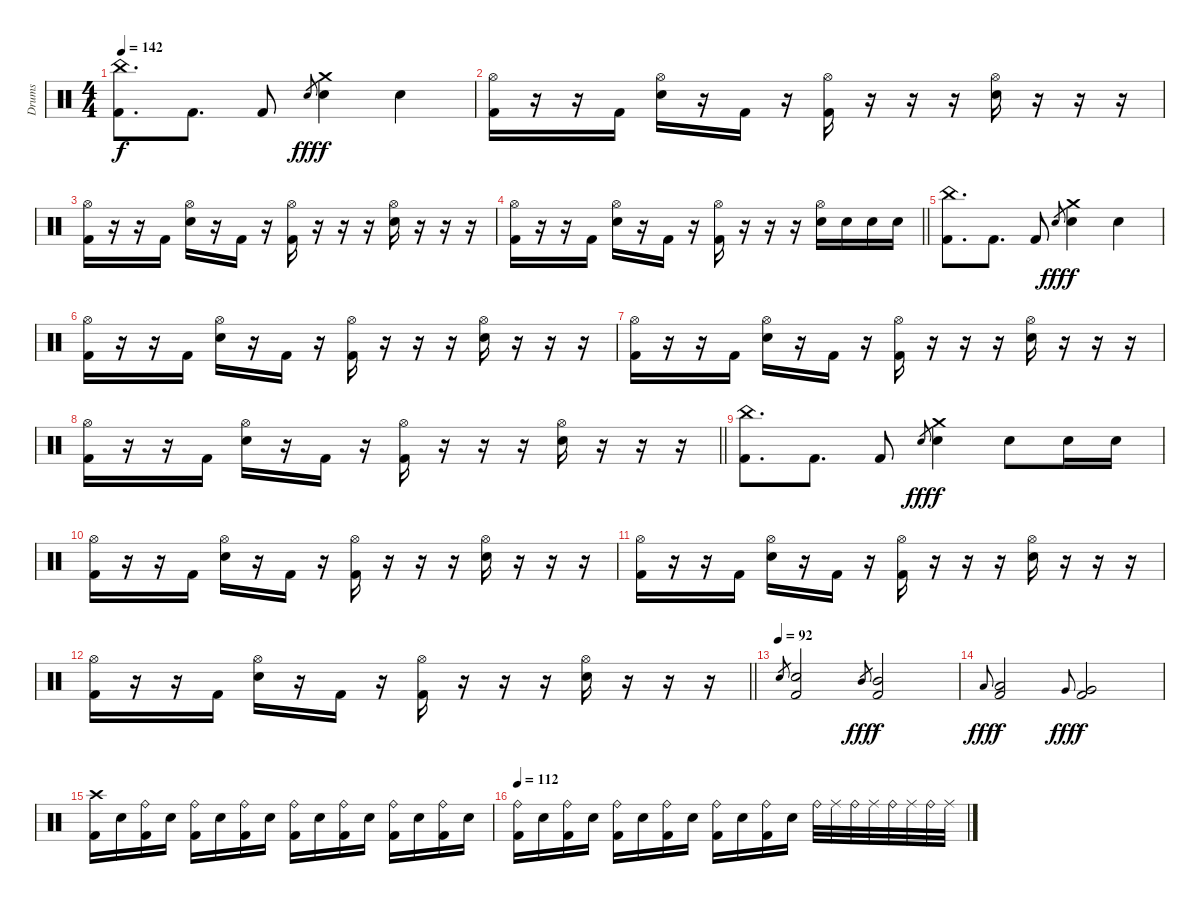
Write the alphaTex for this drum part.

\track ("Drums" "Drums") {instrument percussion}
\staff
\articulation defaults
\ts (4 4)
\tempo 142
\clef neutral
\ks c
("China (hit)" "Kick (hit) 2").8{d dy f} "Kick (hit) 2".8{d} "Kick (hit) 2".8 "Snare (hit) 2"{h}.8{gr dy fff} ("Crash medium (hit)" "Snare (hit) 2").4{dy f} "Snare (hit) 2".4 |
("Hi-Hat (open)" "Kick (hit) 2").16 r.16 r.16 "Kick (hit) 2".16 ("Hi-Hat (open)" "Snare (hit) 2").16 r.16 "Kick (hit) 2".16 r.16 ("Hi-Hat (open)" "Kick (hit) 2").16 r.16 r.16 r.16 ("Hi-Hat (open)" "Snare (hit) 2").16 r.16 r.16 r.16 |
("Hi-Hat (open)" "Kick (hit) 2").16 r.16 r.16 "Kick (hit) 2".16 ("Hi-Hat (open)" "Snare (hit) 2").16 r.16 "Kick (hit) 2".16 r.16 ("Hi-Hat (open)" "Kick (hit) 2").16 r.16 r.16 r.16 ("Hi-Hat (open)" "Snare (hit) 2").16 r.16 r.16 r.16 |
\barLineRight lightlight
("Hi-Hat (open)" "Kick (hit) 2").16 r.16 r.16 "Kick (hit) 2".16 ("Hi-Hat (open)" "Snare (hit) 2").16 r.16 "Kick (hit) 2".16 r.16 ("Hi-Hat (open)" "Kick (hit) 2").16 r.16 r.16 r.16 ("Hi-Hat (open)" "Snare (hit) 2").16 "Snare (hit) 2".16 "Snare (hit) 2".16 "Snare (hit) 2".16 |
("China (hit)" "Kick (hit) 2").8{d} "Kick (hit) 2".8{d} "Kick (hit) 2".8 "Snare (hit) 2"{h}.8{gr dy fff} ("Crash medium (hit)" "Snare (hit) 2").4{dy f} "Snare (hit) 2".4 |
("Hi-Hat (open)" "Kick (hit) 2").16 r.16 r.16 "Kick (hit) 2".16 ("Hi-Hat (open)" "Snare (hit) 2").16 r.16 "Kick (hit) 2".16 r.16 ("Hi-Hat (open)" "Kick (hit) 2").16 r.16 r.16 r.16 ("Hi-Hat (open)" "Snare (hit) 2").16 r.16 r.16 r.16 |
("Hi-Hat (open)" "Kick (hit) 2").16 r.16 r.16 "Kick (hit) 2".16 ("Hi-Hat (open)" "Snare (hit) 2").16 r.16 "Kick (hit) 2".16 r.16 ("Hi-Hat (open)" "Kick (hit) 2").16 r.16 r.16 r.16 ("Hi-Hat (open)" "Snare (hit) 2").16 r.16 r.16 r.16 |
\barLineRight lightlight
("Hi-Hat (open)" "Kick (hit) 2").16 r.16 r.16 "Kick (hit) 2".16 ("Hi-Hat (open)" "Snare (hit) 2").16 r.16 "Kick (hit) 2".16 r.16 ("Hi-Hat (open)" "Kick (hit) 2").16 r.16 r.16 r.16 ("Hi-Hat (open)" "Snare (hit) 2").16 r.16 r.16 r.16 |
("China (hit)" "Kick (hit) 2").8{d} "Kick (hit) 2".8{d} "Kick (hit) 2".8 "Snare (hit) 2"{h}.8{gr dy fff} ("Crash medium (hit)" "Snare (hit) 2").4{dy f} "Snare (hit) 2".8 "Snare (hit) 2".16 "Snare (hit) 2".16 |
("Hi-Hat (open)" "Kick (hit) 2").16 r.16 r.16 "Kick (hit) 2".16 ("Hi-Hat (open)" "Snare (hit) 2").16 r.16 "Kick (hit) 2".16 r.16 ("Hi-Hat (open)" "Kick (hit) 2").16 r.16 r.16 r.16 ("Hi-Hat (open)" "Snare (hit) 2").16 r.16 r.16 r.16 |
("Hi-Hat (open)" "Kick (hit) 2").16 r.16 r.16 "Kick (hit) 2".16 ("Hi-Hat (open)" "Snare (hit) 2").16 r.16 "Kick (hit) 2".16 r.16 ("Hi-Hat (open)" "Kick (hit) 2").16 r.16 r.16 r.16 ("Hi-Hat (open)" "Snare (hit) 2").16 r.16 r.16 r.16 |
\barLineRight lightlight
("Hi-Hat (open)" "Kick (hit) 2").16 r.16 r.16 "Kick (hit) 2".16 ("Hi-Hat (open)" "Snare (hit) 2").16 r.16 "Kick (hit) 2".16 r.16 ("Hi-Hat (open)" "Kick (hit) 2").16 r.16 r.16 r.16 ("Hi-Hat (open)" "Snare (hit) 2").16 r.16 r.16 r.16 |
\section ("" "")
\tempo (92)
"Snare (hit) 2".8{gr} ("Snare (hit) 2" "Kick (hit) 2").2 "Mid Tom (hit)".8{gr dy fff} ("Mid Tom (hit)" "Kick (hit) 2").2{dy f} |
"Low Tom (hit)"{h}.8{gr onbeat dy fff} ("Low Tom (hit)" "Kick (hit) 2").2{dy f} "Very Low Tom (hit)"{h}.8{gr onbeat dy fff} ("Very Low Tom (hit)" "Kick (hit) 2").2{dy f} |
("Crash high (hit)" "Kick (hit) 2").16 "Snare (hit) 2".16 ("Ride (bell)" "Kick (hit) 2").16 "Snare (hit) 2".16 ("Ride (bell)" "Kick (hit) 2").16 "Snare (hit) 2".16 ("Ride (bell)" "Kick (hit) 2").16 "Snare (hit) 2".16 ("Ride (bell)" "Kick (hit) 2").16 "Snare (hit) 2".16 ("Ride (bell)" "Kick (hit) 2").16 "Snare (hit) 2".16 ("Ride (bell)" "Kick (hit) 2").16 "Snare (hit) 2".16 ("Ride (bell)" "Kick (hit) 2").16 "Snare (hit) 2".16 |
\tempo 112
("Ride (bell)" "Kick (hit) 2").16 "Snare (hit) 2".16 ("Ride (bell)" "Kick (hit) 2").16 "Snare (hit) 2".16 ("Ride (bell)" "Kick (hit) 2").16 "Snare (hit) 2".16 ("Ride (bell)" "Kick (hit) 2").16 "Snare (hit) 2".16 ("Ride (bell)" "Kick (hit) 2").16 "Snare (hit) 2".16 ("Ride (bell)" "Kick (hit) 2").16 "Snare (hit) 2".16 "Ride (bell)".32 "Ride (middle)".32 "Ride (bell)".32 "Ride (middle)".32 "Ride (bell)".32 "Ride (middle)".32 "Ride (bell)".32 "Ride (middle)".32
